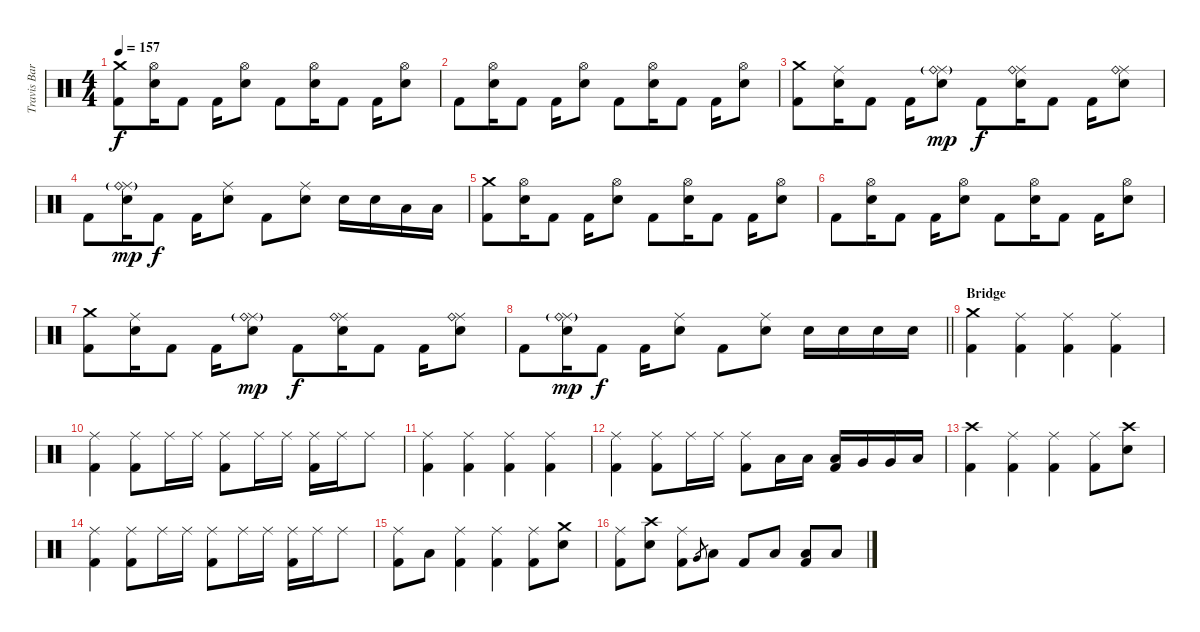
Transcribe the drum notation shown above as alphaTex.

\track ("Travis Barker - Drums" "Travis Bar") {instrument percussion}
\staff {score}
\articulation defaults
\ts (4 4)
\tempo 157
\clef neutral
\ks c
("Crash medium (hit)" "Kick (hit) 2").8{dy f} ("Hi-Hat (open)" "Electric Snare (hit)").16 "Kick (hit) 2".8 "Kick (hit) 2".16 ("Hi-Hat (open)" "Electric Snare (hit)").8 "Kick (hit) 2".8 ("Hi-Hat (open)" "Electric Snare (hit)").16 "Kick (hit) 2".8 "Kick (hit) 2".16 ("Hi-Hat (open)" "Electric Snare (hit)").8 |
"Kick (hit) 2".8 ("Hi-Hat (open)" "Electric Snare (hit)").16 "Kick (hit) 2".8 "Kick (hit) 2".16 ("Hi-Hat (open)" "Electric Snare (hit)").8 "Kick (hit) 2".8 ("Hi-Hat (open)" "Electric Snare (hit)").16 "Kick (hit) 2".8 "Kick (hit) 2".16 ("Hi-Hat (open)" "Electric Snare (hit)").8 |
("Crash medium (hit)" "Kick (hit) 2").8 ("Ride (middle)" "Electric Snare (hit)").16 "Kick (hit) 2".8 "Kick (hit) 2".16 ("Ride (middle)" "Ride (bell)"{g} "Electric Snare (hit)").8{dy mp} "Kick (hit) 2".8{dy f} ("Ride (middle)" "Ride (bell)" "Electric Snare (hit)").16 "Kick (hit) 2".8 "Kick (hit) 2".16 ("Ride (middle)" "Ride (bell)" "Electric Snare (hit)").8 |
"Kick (hit) 2".8 ("Ride (middle)" "Ride (bell)"{g} "Electric Snare (hit)").16{dy mp} "Kick (hit) 2".8{dy f} "Kick (hit) 2".16 ("Ride (middle)" "Electric Snare (hit)").8 "Kick (hit) 2".8 ("Ride (middle)" "Electric Snare (hit)").8 "Electric Snare (hit)".16 "Electric Snare (hit)".16 "Low Tom (hit)".16 "Low Tom (hit)".16 |
("Crash medium (hit)" "Kick (hit) 2").8 ("Hi-Hat (open)" "Electric Snare (hit)").16 "Kick (hit) 2".8 "Kick (hit) 2".16 ("Hi-Hat (open)" "Electric Snare (hit)").8 "Kick (hit) 2".8 ("Hi-Hat (open)" "Electric Snare (hit)").16 "Kick (hit) 2".8 "Kick (hit) 2".16 ("Hi-Hat (open)" "Electric Snare (hit)").8 |
"Kick (hit) 2".8 ("Hi-Hat (open)" "Electric Snare (hit)").16 "Kick (hit) 2".8 "Kick (hit) 2".16 ("Hi-Hat (open)" "Electric Snare (hit)").8 "Kick (hit) 2".8 ("Hi-Hat (open)" "Electric Snare (hit)").16 "Kick (hit) 2".8 "Kick (hit) 2".16 ("Hi-Hat (open)" "Electric Snare (hit)").8 |
("Crash medium (hit)" "Kick (hit) 2").8 ("Ride (middle)" "Electric Snare (hit)").16 "Kick (hit) 2".8 "Kick (hit) 2".16 ("Ride (middle)" "Ride (bell)"{g} "Electric Snare (hit)").8{dy mp} "Kick (hit) 2".8{dy f} ("Ride (middle)" "Ride (bell)" "Electric Snare (hit)").16 "Kick (hit) 2".8 "Kick (hit) 2".16 ("Ride (middle)" "Ride (bell)" "Electric Snare (hit)").8 |
\barLineRight lightlight "Kick (hit) 2".8
("Ride (middle)" "Ride (bell)"{g} "Electric Snare (hit)").16{dy mp} "Kick (hit) 2".8{dy f} "Kick (hit) 2".16 ("Ride (middle)" "Electric Snare (hit)").8 "Kick (hit) 2".8 ("Ride (middle)" "Electric Snare (hit)").8 "Electric Snare (hit)".16 "Electric Snare (hit)".16 "Electric Snare (hit)".16 "Electric Snare (hit)".16 |
\section ("" "Bridge")
("Crash medium (hit)" "Kick (hit) 2").4 ("Ride (middle)" "Kick (hit) 2").4 ("Ride (middle)" "Kick (hit) 2").4 ("Ride (middle)" "Kick (hit) 2").4 |
("Ride (middle)" "Kick (hit) 2").4 ("Ride (middle)" "Kick (hit) 2").8 "Ride (middle)".16 "Ride (middle)".16 ("Ride (middle)" "Kick (hit) 2").8 "Ride (middle)".16 "Ride (middle)".16 ("Ride (middle)" "Kick (hit) 2").16 "Ride (middle)".16 "Ride (middle)".8 |
("Ride (middle)" "Kick (hit) 2").4 ("Ride (middle)" "Kick (hit) 2").4 ("Ride (middle)" "Kick (hit) 2").4 ("Ride (middle)" "Kick (hit) 2").4 |
("Ride (middle)" "Kick (hit) 2").4 ("Ride (middle)" "Kick (hit) 2").8 "Ride (middle)".16 "Ride (middle)".16 ("Ride (middle)" "Kick (hit) 2").8 "Low Tom (hit)".16 "Low Tom (hit)".16 ("Low Tom (hit)" "Kick (hit) 2").16 "Very Low Tom (hit)".16 "Very Low Tom (hit)".16 "Low Floor Tom (hit)".16 |
("Crash high (hit)" "Kick (hit) 2").4 ("Ride (middle)" "Kick (hit) 2").4 ("Ride (middle)" "Kick (hit) 2").4 ("Ride (middle)" "Kick (hit) 2").8 ("Crash high (hit)" "Electric Snare (hit)").8 |
("Ride (middle)" "Kick (hit) 2").4 ("Ride (middle)" "Kick (hit) 2").8 "Ride (middle)".16 "Ride (middle)".16 ("Ride (middle)" "Kick (hit) 2").8 "Ride (middle)".16 "Ride (middle)".16 ("Ride (middle)" "Kick (hit) 2").16 "Ride (middle)".16 "Ride (middle)".8 |
("Ride (middle)" "Kick (hit) 2").8 "Low Tom (hit)".8 ("Ride (middle)" "Kick (hit) 2").4 ("Ride (middle)" "Kick (hit) 2").4 ("Ride (middle)" "Kick (hit) 2").8 ("Crash medium (hit)" "Electric Snare (hit)").8 |
("Ride (middle)" "Kick (hit) 2").8 ("Crash high (hit)" "Electric Snare (hit)").8 ("Ride (middle)" "Kick (hit) 2").8 "Very Low Tom (hit)".8{gr} "Low Tom (hit)".8 "Kick (hit) 2".8 "Low Tom (hit)".8 ("Low Floor Tom (hit)" "Kick (hit) 2").8 "Low Floor Tom (hit)".8
